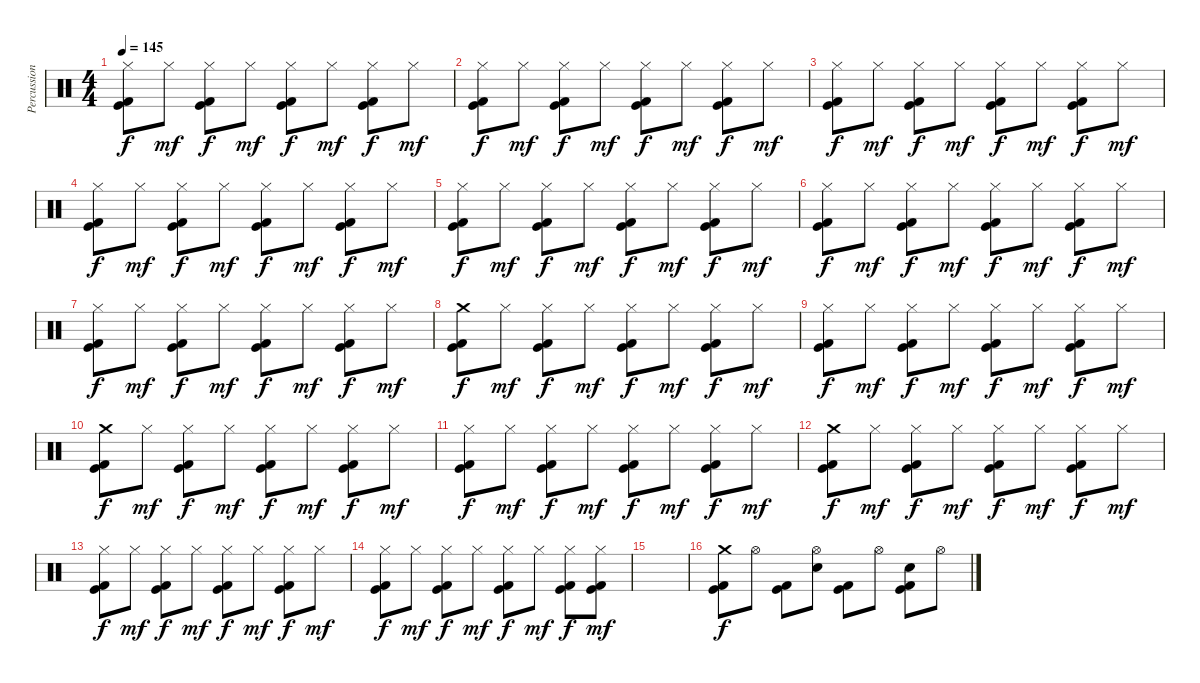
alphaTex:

\track ("Percussion" "Percussion") {instrument percussion}
\staff {score}
\articulation defaults
\ts (4 4)
\tempo 145
\clef neutral
\ks c
("Hi-Hat (closed)" "Kick (hit)" "Kick (hit) 2").8{dy f} "Hi-Hat (closed)".8{dy mf} ("Hi-Hat (closed)" "Kick (hit)" "Kick (hit) 2").8{dy f} "Hi-Hat (closed)".8{dy mf} ("Hi-Hat (closed)" "Kick (hit)" "Kick (hit) 2").8{dy f} "Hi-Hat (closed)".8{dy mf} ("Hi-Hat (closed)" "Kick (hit)" "Kick (hit) 2").8{dy f} "Hi-Hat (closed)".8{dy mf} |
("Hi-Hat (closed)" "Kick (hit)" "Kick (hit) 2").8{dy f} "Hi-Hat (closed)".8{dy mf} ("Hi-Hat (closed)" "Kick (hit)" "Kick (hit) 2").8{dy f} "Hi-Hat (closed)".8{dy mf} ("Hi-Hat (closed)" "Kick (hit)" "Kick (hit) 2").8{dy f} "Hi-Hat (closed)".8{dy mf} ("Hi-Hat (closed)" "Kick (hit)" "Kick (hit) 2").8{dy f} "Hi-Hat (closed)".8{dy mf} |
("Hi-Hat (closed)" "Kick (hit)" "Kick (hit) 2").8{dy f} "Hi-Hat (closed)".8{dy mf} ("Hi-Hat (closed)" "Kick (hit)" "Kick (hit) 2").8{dy f} "Hi-Hat (closed)".8{dy mf} ("Hi-Hat (closed)" "Kick (hit)" "Kick (hit) 2").8{dy f} "Hi-Hat (closed)".8{dy mf} ("Hi-Hat (closed)" "Kick (hit)" "Kick (hit) 2").8{dy f} "Hi-Hat (closed)".8{dy mf} |
("Hi-Hat (closed)" "Kick (hit)" "Kick (hit) 2").8{dy f} "Hi-Hat (closed)".8{dy mf} ("Hi-Hat (closed)" "Kick (hit)" "Kick (hit) 2").8{dy f} "Hi-Hat (closed)".8{dy mf} ("Hi-Hat (closed)" "Kick (hit)" "Kick (hit) 2").8{dy f} "Hi-Hat (closed)".8{dy mf} ("Hi-Hat (closed)" "Kick (hit)" "Kick (hit) 2").8{dy f} "Hi-Hat (closed)".8{dy mf} |
("Hi-Hat (closed)" "Kick (hit)" "Kick (hit) 2").8{dy f} "Hi-Hat (closed)".8{dy mf} ("Hi-Hat (closed)" "Kick (hit)" "Kick (hit) 2").8{dy f} "Hi-Hat (closed)".8{dy mf} ("Hi-Hat (closed)" "Kick (hit)" "Kick (hit) 2").8{dy f} "Hi-Hat (closed)".8{dy mf} ("Hi-Hat (closed)" "Kick (hit)" "Kick (hit) 2").8{dy f} "Hi-Hat (closed)".8{dy mf} |
("Hi-Hat (closed)" "Kick (hit)" "Kick (hit) 2").8{dy f} "Hi-Hat (closed)".8{dy mf} ("Hi-Hat (closed)" "Kick (hit)" "Kick (hit) 2").8{dy f} "Hi-Hat (closed)".8{dy mf} ("Hi-Hat (closed)" "Kick (hit)" "Kick (hit) 2").8{dy f} "Hi-Hat (closed)".8{dy mf} ("Hi-Hat (closed)" "Kick (hit)" "Kick (hit) 2").8{dy f} "Hi-Hat (closed)".8{dy mf} |
("Hi-Hat (closed)" "Kick (hit)" "Kick (hit) 2").8{dy f} "Hi-Hat (closed)".8{dy mf} ("Hi-Hat (closed)" "Kick (hit)" "Kick (hit) 2").8{dy f} "Hi-Hat (closed)".8{dy mf} ("Hi-Hat (closed)" "Kick (hit)" "Kick (hit) 2").8{dy f} "Hi-Hat (closed)".8{dy mf} ("Hi-Hat (closed)" "Kick (hit)" "Kick (hit) 2").8{dy f} "Hi-Hat (closed)".8{dy mf} |
("Crash medium (hit)" "Kick (hit)" "Kick (hit) 2").8{dy f} "Hi-Hat (closed)".8{dy mf} ("Hi-Hat (closed)" "Kick (hit)" "Kick (hit) 2").8{dy f} "Hi-Hat (closed)".8{dy mf} ("Hi-Hat (closed)" "Kick (hit)" "Kick (hit) 2").8{dy f} "Hi-Hat (closed)".8{dy mf} ("Hi-Hat (closed)" "Kick (hit)" "Kick (hit) 2").8{dy f} "Hi-Hat (closed)".8{dy mf} |
("Hi-Hat (closed)" "Kick (hit)" "Kick (hit) 2").8{dy f} "Hi-Hat (closed)".8{dy mf} ("Hi-Hat (closed)" "Kick (hit)" "Kick (hit) 2").8{dy f} "Hi-Hat (closed)".8{dy mf} ("Hi-Hat (closed)" "Kick (hit)" "Kick (hit) 2").8{dy f} "Hi-Hat (closed)".8{dy mf} ("Hi-Hat (closed)" "Kick (hit)" "Kick (hit) 2").8{dy f} "Hi-Hat (closed)".8{dy mf} |
("Crash medium (hit)" "Kick (hit)" "Kick (hit) 2").8{dy f} "Hi-Hat (closed)".8{dy mf} ("Hi-Hat (closed)" "Kick (hit)" "Kick (hit) 2").8{dy f} "Hi-Hat (closed)".8{dy mf} ("Hi-Hat (closed)" "Kick (hit)" "Kick (hit) 2").8{dy f} "Hi-Hat (closed)".8{dy mf} ("Hi-Hat (closed)" "Kick (hit)" "Kick (hit) 2").8{dy f} "Hi-Hat (closed)".8{dy mf} |
("Hi-Hat (closed)" "Kick (hit)" "Kick (hit) 2").8{dy f} "Hi-Hat (closed)".8{dy mf} ("Hi-Hat (closed)" "Kick (hit)" "Kick (hit) 2").8{dy f} "Hi-Hat (closed)".8{dy mf} ("Hi-Hat (closed)" "Kick (hit)" "Kick (hit) 2").8{dy f} "Hi-Hat (closed)".8{dy mf} ("Hi-Hat (closed)" "Kick (hit)" "Kick (hit) 2").8{dy f} "Hi-Hat (closed)".8{dy mf} |
("Crash medium (hit)" "Kick (hit)" "Kick (hit) 2").8{dy f} "Hi-Hat (closed)".8{dy mf} ("Hi-Hat (closed)" "Kick (hit)" "Kick (hit) 2").8{dy f} "Hi-Hat (closed)".8{dy mf} ("Hi-Hat (closed)" "Kick (hit)" "Kick (hit) 2").8{dy f} "Hi-Hat (closed)".8{dy mf} ("Hi-Hat (closed)" "Kick (hit)" "Kick (hit) 2").8{dy f} "Hi-Hat (closed)".8{dy mf} |
("Hi-Hat (closed)" "Kick (hit)" "Kick (hit) 2").8{dy f} "Hi-Hat (closed)".8{dy mf} ("Hi-Hat (closed)" "Kick (hit)" "Kick (hit) 2").8{dy f} "Hi-Hat (closed)".8{dy mf} ("Hi-Hat (closed)" "Kick (hit)" "Kick (hit) 2").8{dy f} "Hi-Hat (closed)".8{dy mf} ("Hi-Hat (closed)" "Kick (hit)" "Kick (hit) 2").8{dy f} "Hi-Hat (closed)".8{dy mf} |
("Hi-Hat (closed)" "Kick (hit)" "Kick (hit) 2").8{dy f} "Hi-Hat (closed)".8{dy mf} ("Hi-Hat (closed)" "Kick (hit)" "Kick (hit) 2").8{dy f} "Hi-Hat (closed)".8{dy mf} ("Hi-Hat (closed)" "Kick (hit)" "Kick (hit) 2").8{dy f} "Hi-Hat (closed)".8{dy mf} ("Hi-Hat (closed)" "Kick (hit)" "Kick (hit) 2").8{dy f} ("Hi-Hat (closed)" "Kick (hit)" "Kick (hit) 2").8{dy mf} |
|
("Crash medium (hit)" "Kick (hit)" "Kick (hit) 2").8{dy f} "Hi-Hat (open)".8 ("Kick (hit)" "Kick (hit) 2").8 ("Hi-Hat (open)" "Snare (hit) 2").8 ("Kick (hit)" "Kick (hit) 2").8 "Hi-Hat (open)".8 ("Electric Snare (hit)" "Kick (hit)" "Kick (hit) 2").8 "Hi-Hat (open)".8
